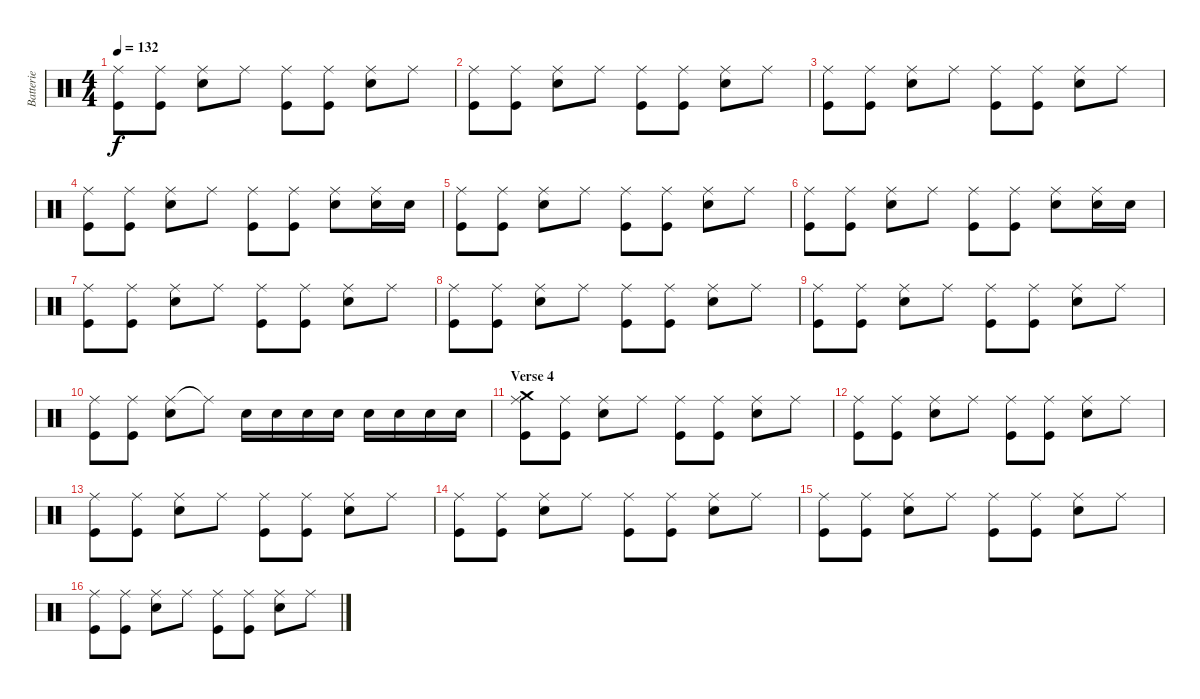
\track ("Batterie" "Batterie") {instrument percussion}
\staff {score}
\articulation defaults
\ts (4 4)
\tempo 132
\clef neutral
\ks c
("Ride (middle)" "Kick (hit)").8{dy f} ("Ride (middle)" "Kick (hit)").8 ("Ride (middle)" "Snare (hit) 2").8 "Ride (middle)".8 ("Ride (middle)" "Kick (hit)").8 ("Ride (middle)" "Kick (hit)").8 ("Ride (middle)" "Snare (hit) 2").8 "Ride (middle)".8 |
("Ride (middle)" "Kick (hit)").8 ("Ride (middle)" "Kick (hit)").8 ("Ride (middle)" "Snare (hit) 2").8 "Ride (middle)".8 ("Ride (middle)" "Kick (hit)").8 ("Ride (middle)" "Kick (hit)").8 ("Ride (middle)" "Snare (hit) 2").8 "Ride (middle)".8 |
("Ride (middle)" "Kick (hit)").8 ("Ride (middle)" "Kick (hit)").8 ("Ride (middle)" "Snare (hit) 2").8 "Ride (middle)".8 ("Ride (middle)" "Kick (hit)").8 ("Ride (middle)" "Kick (hit)").8 ("Ride (middle)" "Snare (hit) 2").8 "Ride (middle)".8 |
("Ride (middle)" "Kick (hit)").8 ("Ride (middle)" "Kick (hit)").8 ("Ride (middle)" "Snare (hit) 2").8 "Ride (middle)".8 ("Ride (middle)" "Kick (hit)").8 ("Ride (middle)" "Kick (hit)").8 ("Ride (middle)" "Snare (hit) 2").8 ("Ride (middle)" "Snare (hit) 2").16 "Snare (hit) 2".16 |
("Ride (middle)" "Kick (hit)").8 ("Ride (middle)" "Kick (hit)").8 ("Ride (middle)" "Snare (hit) 2").8 "Ride (middle)".8 ("Ride (middle)" "Kick (hit)").8 ("Ride (middle)" "Kick (hit)").8 ("Ride (middle)" "Snare (hit) 2").8 "Ride (middle)".8 |
("Ride (middle)" "Kick (hit)").8 ("Ride (middle)" "Kick (hit)").8 ("Ride (middle)" "Snare (hit) 2").8 "Ride (middle)".8 ("Ride (middle)" "Kick (hit)").8 ("Ride (middle)" "Kick (hit)").8 ("Ride (middle)" "Snare (hit) 2").8 ("Ride (middle)" "Snare (hit) 2").16 "Snare (hit) 2".16 |
("Ride (middle)" "Kick (hit)").8 ("Ride (middle)" "Kick (hit)").8 ("Ride (middle)" "Snare (hit) 2").8 "Ride (middle)".8 ("Ride (middle)" "Kick (hit)").8 ("Ride (middle)" "Kick (hit)").8 ("Ride (middle)" "Snare (hit) 2").8 "Ride (middle)".8 |
("Ride (middle)" "Kick (hit)").8 ("Ride (middle)" "Kick (hit)").8 ("Ride (middle)" "Snare (hit) 2").8 "Ride (middle)".8 ("Ride (middle)" "Kick (hit)").8 ("Ride (middle)" "Kick (hit)").8 ("Ride (middle)" "Snare (hit) 2").8 "Ride (middle)".8 |
("Ride (middle)" "Kick (hit)").8 ("Ride (middle)" "Kick (hit)").8 ("Ride (middle)" "Snare (hit) 2").8 "Ride (middle)".8 ("Ride (middle)" "Kick (hit)").8 ("Ride (middle)" "Kick (hit)").8 ("Ride (middle)" "Snare (hit) 2").8 "Ride (middle)".8 |
("Ride (middle)" "Kick (hit)").8 ("Ride (middle)" "Kick (hit)").8 ("Ride (middle)" "Snare (hit) 2").8 "Ride (middle)"{t}.8 "Snare (hit) 2".16 "Snare (hit) 2".16 "Snare (hit) 2".16 "Snare (hit) 2".16 "Snare (hit) 2".16 "Snare (hit) 2".16 "Snare (hit) 2".16 "Snare (hit) 2".16 |
\section ("" "Verse 4")
("Ride (middle)" "Crash medium (hit)" "Kick (hit)").8 ("Ride (middle)" "Kick (hit)").8 ("Ride (middle)" "Snare (hit) 2").8 "Ride (middle)".8 ("Ride (middle)" "Kick (hit)").8 ("Ride (middle)" "Kick (hit)").8 ("Ride (middle)" "Snare (hit) 2").8 "Ride (middle)".8 |
("Ride (middle)" "Kick (hit)").8 ("Ride (middle)" "Kick (hit)").8 ("Ride (middle)" "Snare (hit) 2").8 "Ride (middle)".8 ("Ride (middle)" "Kick (hit)").8 ("Ride (middle)" "Kick (hit)").8 ("Ride (middle)" "Snare (hit) 2").8 "Ride (middle)".8 |
("Ride (middle)" "Kick (hit)").8 ("Ride (middle)" "Kick (hit)").8 ("Ride (middle)" "Snare (hit) 2").8 "Ride (middle)".8 ("Ride (middle)" "Kick (hit)").8 ("Ride (middle)" "Kick (hit)").8 ("Ride (middle)" "Snare (hit) 2").8 "Ride (middle)".8 |
("Ride (middle)" "Kick (hit)").8 ("Ride (middle)" "Kick (hit)").8 ("Ride (middle)" "Snare (hit) 2").8 "Ride (middle)".8 ("Ride (middle)" "Kick (hit)").8 ("Ride (middle)" "Kick (hit)").8 ("Ride (middle)" "Snare (hit) 2").8 "Ride (middle)".8 |
("Ride (middle)" "Kick (hit)").8 ("Ride (middle)" "Kick (hit)").8 ("Ride (middle)" "Snare (hit) 2").8 "Ride (middle)".8 ("Ride (middle)" "Kick (hit)").8 ("Ride (middle)" "Kick (hit)").8 ("Ride (middle)" "Snare (hit) 2").8 "Ride (middle)".8 |
("Ride (middle)" "Kick (hit)").8 ("Ride (middle)" "Kick (hit)").8 ("Ride (middle)" "Snare (hit) 2").8 "Ride (middle)".8 ("Ride (middle)" "Kick (hit)").8 ("Ride (middle)" "Kick (hit)").8 ("Ride (middle)" "Snare (hit) 2").8 "Ride (middle)".8
